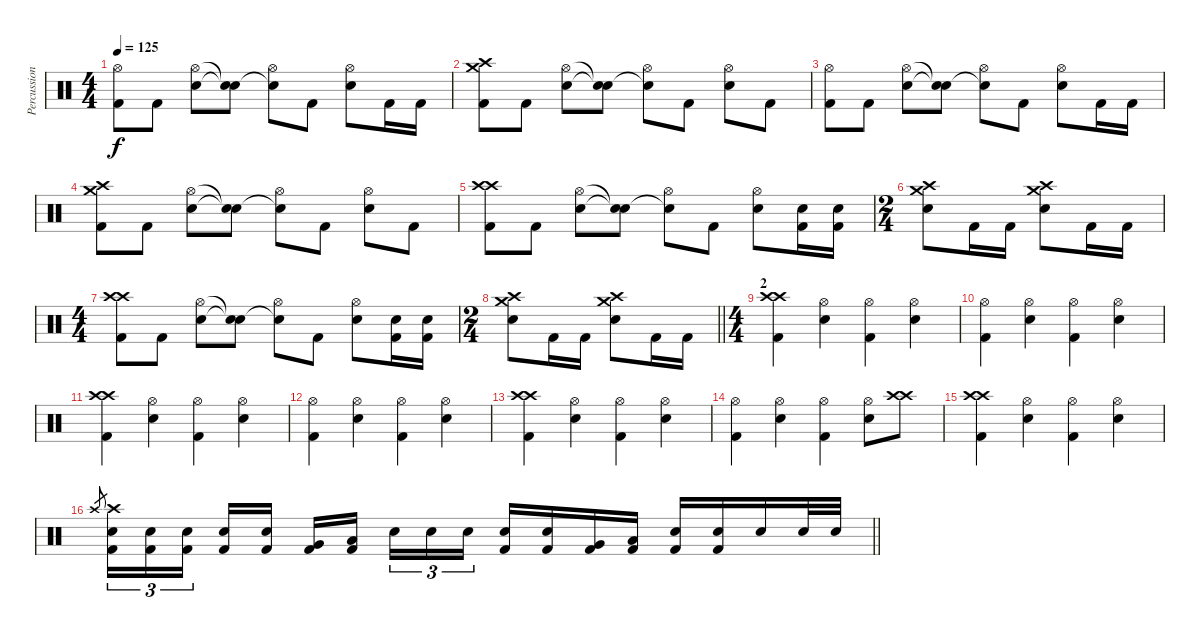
\track ("Percussion" "Percussion") {instrument percussion}
\staff {score}
\articulation defaults
\ts (4 4)
\tempo 125
\clef neutral
\ks c
("Hi-Hat (open)" "Kick (hit) 2").8{dy f} "Kick (hit) 2".8 ("Hi-Hat (open)" "Snare (hit) 2").8 ("Snare (hit)"{t} "Snare (hit)"{t}).8 ("Hi-Hat (open)" "Snare (hit)"{t}).8 "Kick (hit) 2".8 ("Hi-Hat (open)" "Snare (hit) 2").8 "Kick (hit) 2".16 "Kick (hit) 2".16 |
("Crash medium (hit)" "Crash high (hit)" "Kick (hit) 2").8 "Kick (hit) 2".8 ("Hi-Hat (open)" "Snare (hit) 2").8 ("Snare (hit)"{t} "Snare (hit)"{t}).8 ("Hi-Hat (open)" "Snare (hit)"{t}).8 "Kick (hit) 2".8 ("Hi-Hat (open)" "Snare (hit) 2").8 "Kick (hit) 2".8 |
("Hi-Hat (open)" "Kick (hit) 2").8 "Kick (hit) 2".8 ("Hi-Hat (open)" "Snare (hit) 2").8 ("Snare (hit)"{t} "Snare (hit)"{t}).8 ("Hi-Hat (open)" "Snare (hit)"{t}).8 "Kick (hit) 2".8 ("Hi-Hat (open)" "Snare (hit) 2").8 "Kick (hit) 2".16 "Kick (hit) 2".16 |
("Crash medium (hit)" "Crash high (hit)" "Kick (hit) 2").8 "Kick (hit) 2".8 ("Hi-Hat (open)" "Snare (hit) 2").8 ("Snare (hit)"{t} "Snare (hit)"{t}).8 ("Hi-Hat (open)" "Snare (hit)"{t}).8 "Kick (hit) 2".8 ("Hi-Hat (open)" "Snare (hit) 2").8 "Kick (hit) 2".8 |
("Crash high (hit)" "Crash high (hit)" "Kick (hit) 2").8 "Kick (hit) 2".8 ("Hi-Hat (open)" "Snare (hit) 2").8 ("Snare (hit)"{t} "Snare (hit)"{t}).8 ("Hi-Hat (open)" "Snare (hit)"{t}).8 "Kick (hit) 2".8 ("Hi-Hat (open)" "Snare (hit) 2").8 ("Snare (hit) 2" "Kick (hit) 2").16 ("Snare (hit) 2" "Kick (hit) 2").16 |
\ts (2 4)
("Crash medium (hit)" "Crash high (hit)" "Snare (hit) 2").8 "Kick (hit) 2".16 "Kick (hit) 2".16 ("Crash high (hit)" "Crash medium (hit)" "Snare (hit) 2").8 "Kick (hit) 2".16 "Kick (hit) 2".16 |
\ts (4 4)
("Crash high (hit)" "Crash high (hit)" "Kick (hit) 2").8 "Kick (hit) 2".8 ("Hi-Hat (open)" "Snare (hit) 2").8 ("Snare (hit)"{t} "Snare (hit)"{t}).8 ("Hi-Hat (open)" "Snare (hit)"{t}).8 "Kick (hit) 2".8 ("Hi-Hat (open)" "Snare (hit) 2").8 ("Snare (hit) 2" "Kick (hit) 2").16 ("Snare (hit) 2" "Kick (hit) 2").16 |
\ts (2 4)
\barLineRight lightlight
("Crash medium (hit)" "Crash high (hit)" "Snare (hit) 2").8 "Kick (hit) 2".16 "Kick (hit) 2".16 ("Crash high (hit)" "Crash medium (hit)" "Snare (hit) 2").8 "Kick (hit) 2".16 "Kick (hit) 2".16 |
\ts (4 4)
\section ("" "2")
("Crash high (hit)" "Crash high (hit)" "Kick (hit) 2").4 ("Hi-Hat (open)" "Snare (hit) 2").4 ("Hi-Hat (open)" "Kick (hit) 2").4 ("Hi-Hat (open)" "Snare (hit) 2").4 |
("Hi-Hat (open)" "Kick (hit) 2").4 ("Hi-Hat (open)" "Snare (hit) 2").4 ("Hi-Hat (open)" "Kick (hit) 2").4 ("Hi-Hat (open)" "Snare (hit) 2").4 |
("Crash high (hit)" "Crash high (hit)" "Kick (hit) 2").4 ("Hi-Hat (open)" "Snare (hit) 2").4 ("Hi-Hat (open)" "Kick (hit) 2").4 ("Hi-Hat (open)" "Snare (hit) 2").4 |
("Hi-Hat (open)" "Kick (hit) 2").4 ("Hi-Hat (open)" "Snare (hit) 2").4 ("Hi-Hat (open)" "Kick (hit) 2").4 ("Hi-Hat (open)" "Snare (hit) 2").4 |
("Crash high (hit)" "Crash high (hit)" "Kick (hit) 2").4 ("Hi-Hat (open)" "Snare (hit) 2").4 ("Hi-Hat (open)" "Kick (hit) 2").4 ("Hi-Hat (open)" "Snare (hit) 2").4 |
("Hi-Hat (open)" "Kick (hit) 2").4 ("Hi-Hat (open)" "Snare (hit) 2").4 ("Hi-Hat (open)" "Kick (hit) 2").4 ("Hi-Hat (open)" "Snare (hit) 2").8 ("Crash high (hit)" "Crash high (hit)").8 |
("Crash high (hit)" "Crash high (hit)" "Kick (hit) 2").4 ("Hi-Hat (open)" "Snare (hit) 2").4 ("Hi-Hat (open)" "Kick (hit) 2").4 ("Hi-Hat (open)" "Snare (hit) 2").4 |
\barLineRight lightlight "Crash high (hit)".8{gr}
("Crash high (hit)" "Snare (hit) 2" "Kick (hit) 2").16{tu (3 2)} ("Snare (hit) 2" "Kick (hit) 2").16{tu (3 2)} ("Snare (hit) 2" "Kick (hit) 2").16{tu (3 2) beam splitsecondary} ("Kick (hit) 2" "Snare (hit) 2").16 ("Kick (hit) 2" "Snare (hit) 2").16 ("Kick (hit) 2" "Very Low Tom (hit)").16 ("Kick (hit) 2" "Low Floor Tom (hit)").16{beam splitsecondary} "Snare (hit) 2".16{tu (3 2)} "Snare (hit) 2".16{tu (3 2)} "Snare (hit) 2".16{tu (3 2)} ("Kick (hit) 2" "Snare (hit) 2").16 ("Kick (hit) 2" "Snare (hit) 2").16 ("Kick (hit) 2" "Very Low Tom (hit)").16 ("Kick (hit) 2" "Low Floor Tom (hit)").16 ("Kick (hit) 2" "Snare (hit) 2").16 ("Kick (hit) 2" "Snare (hit) 2").16 "Snare (hit) 2".16 "Snare (hit) 2".32 "Snare (hit) 2".32
